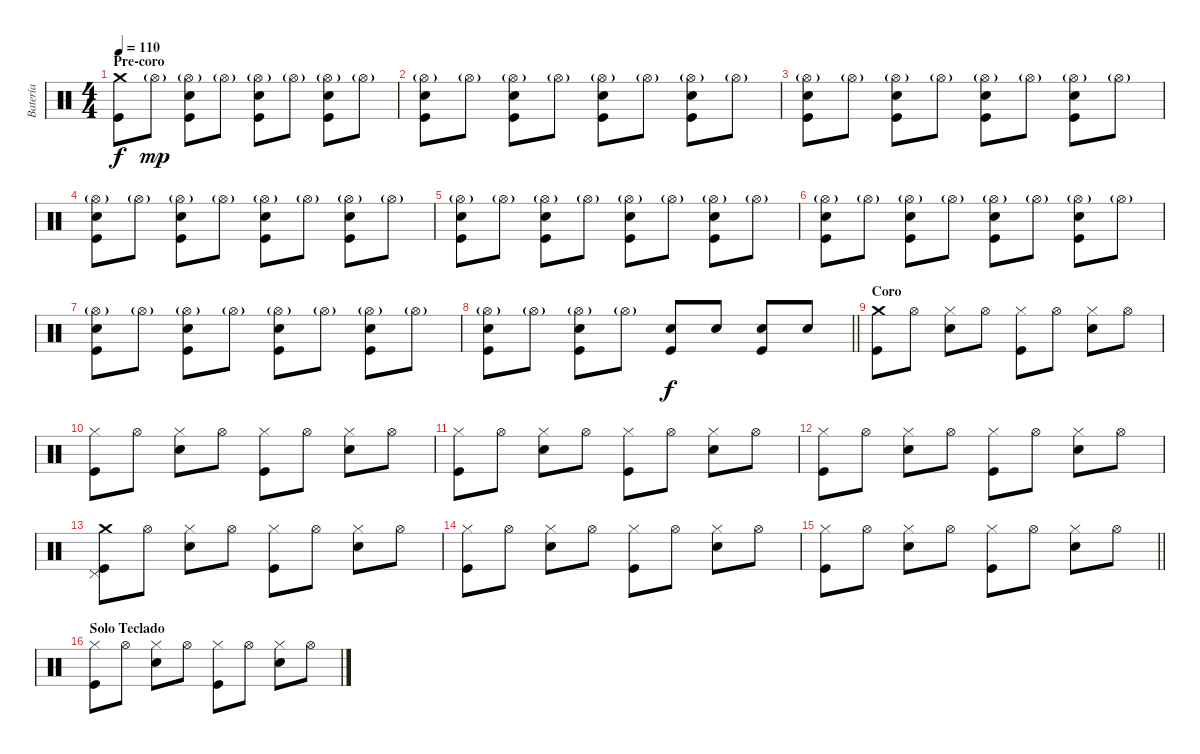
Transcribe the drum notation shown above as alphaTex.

\track ("Batería" "Batería") {instrument percussion}
\staff {score}
\articulation defaults
\ts (4 4)
\section ("" "Pre-coro")
\tempo 110
\clef neutral
\ks c
("Crash medium (hit)" "Kick (hit)").8{dy f} "Hi-Hat (open)"{g}.8{dy mp} ("Hi-Hat (open)"{g} "Snare (hit) 2" "Kick (hit)").8 "Hi-Hat (open)"{g}.8 ("Hi-Hat (open)"{g} "Snare (hit) 2" "Kick (hit)").8 "Hi-Hat (open)"{g}.8 ("Hi-Hat (open)"{g} "Snare (hit) 2" "Kick (hit)").8 "Hi-Hat (open)"{g}.8 |
("Hi-Hat (open)"{g} "Snare (hit) 2" "Kick (hit)").8 "Hi-Hat (open)"{g}.8 ("Hi-Hat (open)"{g} "Snare (hit) 2" "Kick (hit)").8 "Hi-Hat (open)"{g}.8 ("Hi-Hat (open)"{g} "Snare (hit) 2" "Kick (hit)").8 "Hi-Hat (open)"{g}.8 ("Hi-Hat (open)"{g} "Snare (hit) 2" "Kick (hit)").8 "Hi-Hat (open)"{g}.8 |
("Hi-Hat (open)"{g} "Snare (hit) 2" "Kick (hit)").8 "Hi-Hat (open)"{g}.8 ("Hi-Hat (open)"{g} "Snare (hit) 2" "Kick (hit)").8 "Hi-Hat (open)"{g}.8 ("Hi-Hat (open)"{g} "Snare (hit) 2" "Kick (hit)").8 "Hi-Hat (open)"{g}.8 ("Hi-Hat (open)"{g} "Snare (hit) 2" "Kick (hit)").8 "Hi-Hat (open)"{g}.8 |
("Hi-Hat (open)"{g} "Snare (hit) 2" "Kick (hit)").8 "Hi-Hat (open)"{g}.8 ("Hi-Hat (open)"{g} "Snare (hit) 2" "Kick (hit)").8 "Hi-Hat (open)"{g}.8 ("Hi-Hat (open)"{g} "Snare (hit) 2" "Kick (hit)").8 "Hi-Hat (open)"{g}.8 ("Hi-Hat (open)"{g} "Snare (hit) 2" "Kick (hit)").8 "Hi-Hat (open)"{g}.8 |
("Hi-Hat (open)"{g} "Snare (hit) 2" "Kick (hit)").8 "Hi-Hat (open)"{g}.8 ("Hi-Hat (open)"{g} "Snare (hit) 2" "Kick (hit)").8 "Hi-Hat (open)"{g}.8 ("Hi-Hat (open)"{g} "Snare (hit) 2" "Kick (hit)").8 "Hi-Hat (open)"{g}.8 ("Hi-Hat (open)"{g} "Snare (hit) 2" "Kick (hit)").8 "Hi-Hat (open)"{g}.8 |
("Hi-Hat (open)"{g} "Snare (hit) 2" "Kick (hit)").8 "Hi-Hat (open)"{g}.8 ("Hi-Hat (open)"{g} "Snare (hit) 2" "Kick (hit)").8 "Hi-Hat (open)"{g}.8 ("Hi-Hat (open)"{g} "Snare (hit) 2" "Kick (hit)").8 "Hi-Hat (open)"{g}.8 ("Hi-Hat (open)"{g} "Snare (hit) 2" "Kick (hit)").8 "Hi-Hat (open)"{g}.8 |
("Hi-Hat (open)"{g} "Snare (hit) 2" "Kick (hit)").8 "Hi-Hat (open)"{g}.8 ("Hi-Hat (open)"{g} "Snare (hit) 2" "Kick (hit)").8 "Hi-Hat (open)"{g}.8 ("Hi-Hat (open)"{g} "Snare (hit) 2" "Kick (hit)").8 "Hi-Hat (open)"{g}.8 ("Hi-Hat (open)"{g} "Snare (hit) 2" "Kick (hit)").8 "Hi-Hat (open)"{g}.8 |
\barLineRight lightlight
("Hi-Hat (open)"{g} "Snare (hit) 2" "Kick (hit)").8 "Hi-Hat (open)"{g}.8 ("Hi-Hat (open)"{g} "Snare (hit) 2" "Kick (hit)").8 "Hi-Hat (open)"{g}.8 ("Snare (hit) 2" "Kick (hit)").8{dy f} "Snare (hit) 2".8 ("Snare (hit) 2" "Kick (hit)").8 "Snare (hit) 2".8 |
\section ("" "Coro")
("Crash medium (hit)" "Kick (hit)").8 "Hi-Hat (open)".8 ("Hi-Hat (closed)" "Snare (hit) 2").8 "Hi-Hat (open)".8 ("Hi-Hat (closed)" "Kick (hit)").8 "Hi-Hat (open)".8 ("Hi-Hat (closed)" "Snare (hit) 2").8 "Hi-Hat (open)".8 |
("Hi-Hat (closed)" "Kick (hit)").8 "Hi-Hat (open)".8 ("Hi-Hat (closed)" "Snare (hit) 2").8 "Hi-Hat (open)".8 ("Hi-Hat (closed)" "Kick (hit)").8 "Hi-Hat (open)".8 ("Hi-Hat (closed)" "Snare (hit) 2").8 "Hi-Hat (open)".8 |
("Hi-Hat (closed)" "Kick (hit)").8 "Hi-Hat (open)".8 ("Hi-Hat (closed)" "Snare (hit) 2").8 "Hi-Hat (open)".8 ("Hi-Hat (closed)" "Kick (hit)").8 "Hi-Hat (open)".8 ("Hi-Hat (closed)" "Snare (hit) 2").8 "Hi-Hat (open)".8 |
("Hi-Hat (closed)" "Kick (hit)").8 "Hi-Hat (open)".8 ("Hi-Hat (closed)" "Snare (hit) 2").8 "Hi-Hat (open)".8 ("Hi-Hat (closed)" "Kick (hit)").8 "Hi-Hat (open)".8 ("Hi-Hat (closed)" "Snare (hit) 2").8 "Hi-Hat (open)".8 |
("Crash medium (hit)" "Pedal Hi-Hat (hit)" "Kick (hit)").8 "Hi-Hat (open)".8 ("Hi-Hat (closed)" "Snare (hit) 2").8 "Hi-Hat (open)".8 ("Hi-Hat (closed)" "Kick (hit)").8 "Hi-Hat (open)".8 ("Hi-Hat (closed)" "Snare (hit) 2").8 "Hi-Hat (open)".8 |
("Hi-Hat (closed)" "Kick (hit)").8 "Hi-Hat (open)".8 ("Hi-Hat (closed)" "Snare (hit) 2").8 "Hi-Hat (open)".8 ("Hi-Hat (closed)" "Kick (hit)").8 "Hi-Hat (open)".8 ("Hi-Hat (closed)" "Snare (hit) 2").8 "Hi-Hat (open)".8 |
\barLineRight lightlight
("Hi-Hat (closed)" "Kick (hit)").8 "Hi-Hat (open)".8 ("Hi-Hat (closed)" "Snare (hit) 2").8 "Hi-Hat (open)".8 ("Hi-Hat (closed)" "Kick (hit)").8 "Hi-Hat (open)".8 ("Hi-Hat (closed)" "Snare (hit) 2").8 "Hi-Hat (open)".8 |
\section ("" "Solo Teclado")
("Hi-Hat (closed)" "Kick (hit)").8 "Hi-Hat (open)".8 ("Hi-Hat (closed)" "Snare (hit) 2").8 "Hi-Hat (open)".8 ("Hi-Hat (closed)" "Kick (hit)").8 "Hi-Hat (open)".8 ("Hi-Hat (closed)" "Snare (hit) 2").8 "Hi-Hat (open)".8
